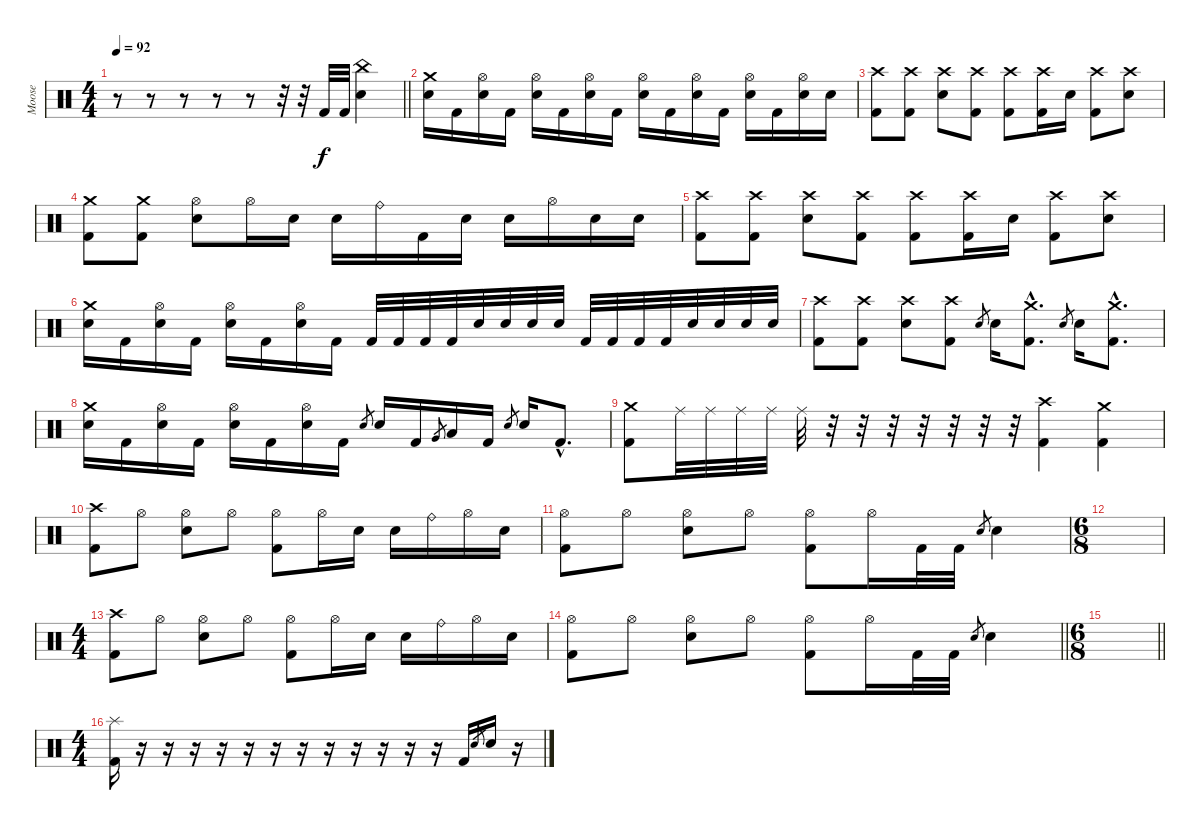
\track ("Moose" "Moose") {instrument percussion}
\staff {score}
\articulation defaults
\ts (4 4)
\tempo 92
\clef neutral
\barLineRight lightlight
\ks c
r.8{dy f} r.8 r.8 r.8 r.8 r.32 r.32 "Kick (hit) 2".32 "Kick (hit) 2".32 ("China (hit)" "Electric Snare (hit)").4 |
("Crash medium (hit)" "Electric Snare (hit)").16 "Kick (hit) 2".16 ("Hi-Hat (open)" "Electric Snare (hit)").16 "Kick (hit) 2".16 ("Hi-Hat (open)" "Electric Snare (hit)").16 "Kick (hit) 2".16 ("Hi-Hat (open)" "Electric Snare (hit)").16 "Kick (hit) 2".16 ("Hi-Hat (open)" "Electric Snare (hit)").16 "Kick (hit) 2".16 ("Hi-Hat (open)" "Electric Snare (hit)").16 "Kick (hit) 2".16 ("Hi-Hat (open)" "Electric Snare (hit)").16 "Kick (hit) 2".16 ("Hi-Hat (open)" "Electric Snare (hit)").16 "Electric Snare (hit)".16 |
("Crash high (hit)" "Kick (hit) 2").8 ("Crash high (hit)" "Kick (hit) 2").8 ("Crash high (hit)" "Electric Snare (hit)").8 ("Crash high (hit)" "Kick (hit) 2").8 ("Crash high (hit)" "Kick (hit) 2").8 ("Crash high (hit)" "Kick (hit) 2").16 "Electric Snare (hit)".16 ("Crash high (hit)" "Kick (hit) 2").8 ("Crash high (hit)" "Electric Snare (hit)").8 |
("Crash medium (hit)" "Kick (hit) 2").8 ("Crash medium (hit)" "Kick (hit) 2").8 ("Hi-Hat (open)" "Electric Snare (hit)").8 "Hi-Hat (open)".16 "Electric Snare (hit)".16 "Electric Snare (hit)".16 "Ride (bell)".16 "Kick (hit) 2".16 "Electric Snare (hit)".16 "Electric Snare (hit)".16 "Hi-Hat (open)".16 "Electric Snare (hit)".16 "Electric Snare (hit)".16 |
("Crash high (hit)" "Kick (hit) 2").8 ("Crash high (hit)" "Kick (hit) 2").8 ("Crash high (hit)" "Electric Snare (hit)").8 ("Crash high (hit)" "Kick (hit) 2").8 ("Crash high (hit)" "Kick (hit) 2").8 ("Crash high (hit)" "Kick (hit) 2").16 "Electric Snare (hit)".16 ("Crash high (hit)" "Kick (hit) 2").8 ("Crash high (hit)" "Electric Snare (hit)").8 |
("Crash medium (hit)" "Electric Snare (hit)").16 "Kick (hit) 2".16 ("Hi-Hat (open)" "Electric Snare (hit)").16 "Kick (hit) 2".16 ("Hi-Hat (open)" "Electric Snare (hit)").16 "Kick (hit) 2".16 ("Hi-Hat (open)" "Electric Snare (hit)").16 "Kick (hit) 2".16 "Kick (hit) 2".32 "Kick (hit) 2".32 "Kick (hit) 2".32 "Kick (hit) 2".32 "Electric Snare (hit)".32 "Electric Snare (hit)".32 "Electric Snare (hit)".32 "Electric Snare (hit)".32 "Kick (hit) 2".32 "Kick (hit) 2".32 "Kick (hit) 2".32 "Kick (hit) 2".32 "Electric Snare (hit)".32 "Electric Snare (hit)".32 "Electric Snare (hit)".32 "Electric Snare (hit)".32 |
("Crash high (hit)" "Kick (hit) 2").8 ("Crash high (hit)" "Kick (hit) 2").8 ("Crash high (hit)" "Electric Snare (hit)").8 ("Crash high (hit)" "Kick (hit) 2").8 "Electric Snare (hit)".8{gr} "Electric Snare (hit)".16 ("Crash medium (hit)"{hac} "Kick (hit) 2"{hac}).8{d} "Electric Snare (hit)".8{gr} "Electric Snare (hit)".16 ("Crash medium (hit)"{hac} "Kick (hit) 2"{hac}).8{d} |
("Crash medium (hit)" "Electric Snare (hit)").16 "Kick (hit) 2".16 ("Hi-Hat (open)" "Electric Snare (hit)").16 "Kick (hit) 2".16 ("Hi-Hat (open)" "Electric Snare (hit)").16 "Kick (hit) 2".16 ("Hi-Hat (open)" "Electric Snare (hit)").16 "Kick (hit) 2".16 "Electric Snare (hit)".8{gr} "Electric Snare (hit)".16 "Kick (hit) 2".16 "Very Low Tom (hit)".8{gr} "Low Floor Tom (hit)".16 "Kick (hit) 2".16 "Electric Snare (hit)".8{gr} "Electric Snare (hit)".16 "Kick (hit) 2"{hac}.8{d} |
("Crash medium (hit)" "Kick (hit) 2").8 "Ride (middle)".32 "Ride (middle)".32 "Ride (middle)".32 "Ride (middle)".32 "Ride (middle)".32 r.32 r.32 r.32 r.32 r.32 r.32 r.32 ("Crash high (hit)" "Kick (hit) 2").4 ("Crash medium (hit)" "Kick (hit) 2").4 |
("Crash high (hit)" "Kick (hit) 2").8 "Hi-Hat (open)".8 ("Hi-Hat (open)" "Electric Snare (hit)").8 "Hi-Hat (open)".8 ("Hi-Hat (open)" "Kick (hit) 2").8 "Hi-Hat (open)".16 "Electric Snare (hit)".16 "Electric Snare (hit)".16 "Ride (bell)".16 "Hi-Hat (open)".16 "Electric Snare (hit)".16 |
("Hi-Hat (open)" "Kick (hit) 2").8 "Hi-Hat (open)".8 ("Hi-Hat (open)" "Electric Snare (hit)").8 "Hi-Hat (open)".8 ("Hi-Hat (open)" "Kick (hit) 2").8 "Hi-Hat (open)".16 "Kick (hit) 2".32 "Kick (hit) 2".32 "Electric Snare (hit)".8{gr} "Electric Snare (hit)".4 |
\ts (6 8)
|
\ts (4 4)
("Crash high (hit)" "Kick (hit) 2").8 "Hi-Hat (open)".8 ("Hi-Hat (open)" "Electric Snare (hit)").8 "Hi-Hat (open)".8 ("Hi-Hat (open)" "Kick (hit) 2").8 "Hi-Hat (open)".16 "Electric Snare (hit)".16 "Electric Snare (hit)".16 "Ride (bell)".16 "Hi-Hat (open)".16 "Electric Snare (hit)".16 |
\barLineRight lightlight
("Hi-Hat (open)" "Kick (hit) 2").8 "Hi-Hat (open)".8 ("Hi-Hat (open)" "Electric Snare (hit)").8 "Hi-Hat (open)".8 ("Hi-Hat (open)" "Kick (hit) 2").8 "Hi-Hat (open)".16 "Kick (hit) 2".32 "Kick (hit) 2".32 "Electric Snare (hit)".8{gr} "Electric Snare (hit)".4 |
\ts (6 8)
\barLineRight lightlight
|
\ts (4 4)
("Splash (hit)" "Kick (hit) 2").16 r.16 r.16 r.16 r.16 r.16 r.16 r.16 r.16 r.16 r.16 r.16 r.16 "Kick (hit) 2".16 "Electric Snare (hit)".8{gr} "Electric Snare (hit)".16 r.16
